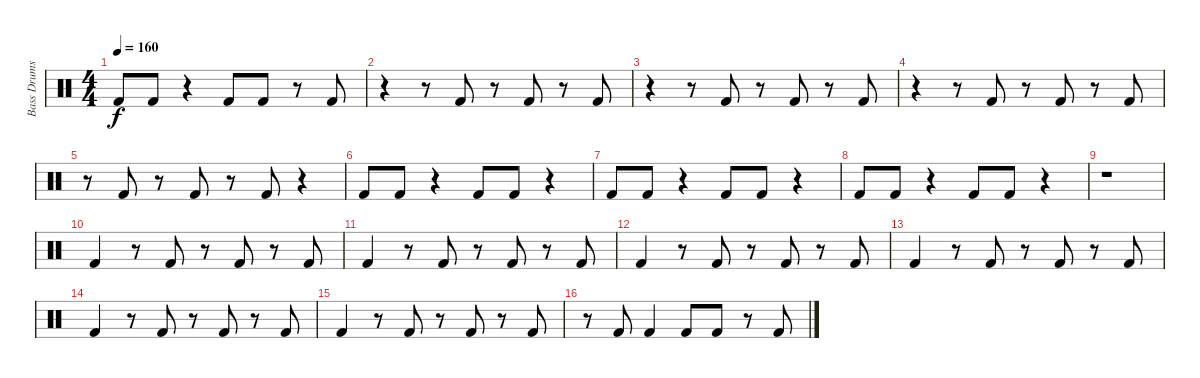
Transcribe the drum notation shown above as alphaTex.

\track ("Bass Drums" "Bass Drums") {instrument percussion}
\staff {score}
\articulation defaults
\ts (4 4)
\tempo 160
\clef neutral
\ks c "Kick (hit) 2".8{dy f} "Kick (hit) 2".8
r.4 "Kick (hit) 2".8 "Kick (hit) 2".8 r.8 "Kick (hit) 2".8 |
r.4 r.8 "Kick (hit) 2".8 r.8 "Kick (hit) 2".8 r.8 "Kick (hit) 2".8 |
r.4 r.8 "Kick (hit) 2".8 r.8 "Kick (hit) 2".8 r.8 "Kick (hit) 2".8 |
r.4 r.8 "Kick (hit) 2".8 r.8 "Kick (hit) 2".8 r.8 "Kick (hit) 2".8 |
r.8 "Kick (hit) 2".8 r.8 "Kick (hit) 2".8 r.8 "Kick (hit) 2".8 r.4 |
"Kick (hit) 2".8 "Kick (hit) 2".8 r.4 "Kick (hit) 2".8 "Kick (hit) 2".8 r.4 |
"Kick (hit) 2".8 "Kick (hit) 2".8 r.4 "Kick (hit) 2".8 "Kick (hit) 2".8 r.4 |
"Kick (hit) 2".8 "Kick (hit) 2".8 r.4 "Kick (hit) 2".8 "Kick (hit) 2".8 r.4 |
r.1 |
"Kick (hit) 2".4 r.8 "Kick (hit) 2".8 r.8 "Kick (hit) 2".8 r.8 "Kick (hit) 2".8 |
"Kick (hit) 2".4 r.8 "Kick (hit) 2".8 r.8 "Kick (hit) 2".8 r.8 "Kick (hit) 2".8 |
"Kick (hit) 2".4 r.8 "Kick (hit) 2".8 r.8 "Kick (hit) 2".8 r.8 "Kick (hit) 2".8 |
"Kick (hit) 2".4 r.8 "Kick (hit) 2".8 r.8 "Kick (hit) 2".8 r.8 "Kick (hit) 2".8 |
"Kick (hit) 2".4 r.8 "Kick (hit) 2".8 r.8 "Kick (hit) 2".8 r.8 "Kick (hit) 2".8 |
"Kick (hit) 2".4 r.8 "Kick (hit) 2".8 r.8 "Kick (hit) 2".8 r.8 "Kick (hit) 2".8 |
r.8 "Kick (hit) 2".8 "Kick (hit) 2".4 "Kick (hit) 2".8 "Kick (hit) 2".8 r.8 "Kick (hit) 2".8
